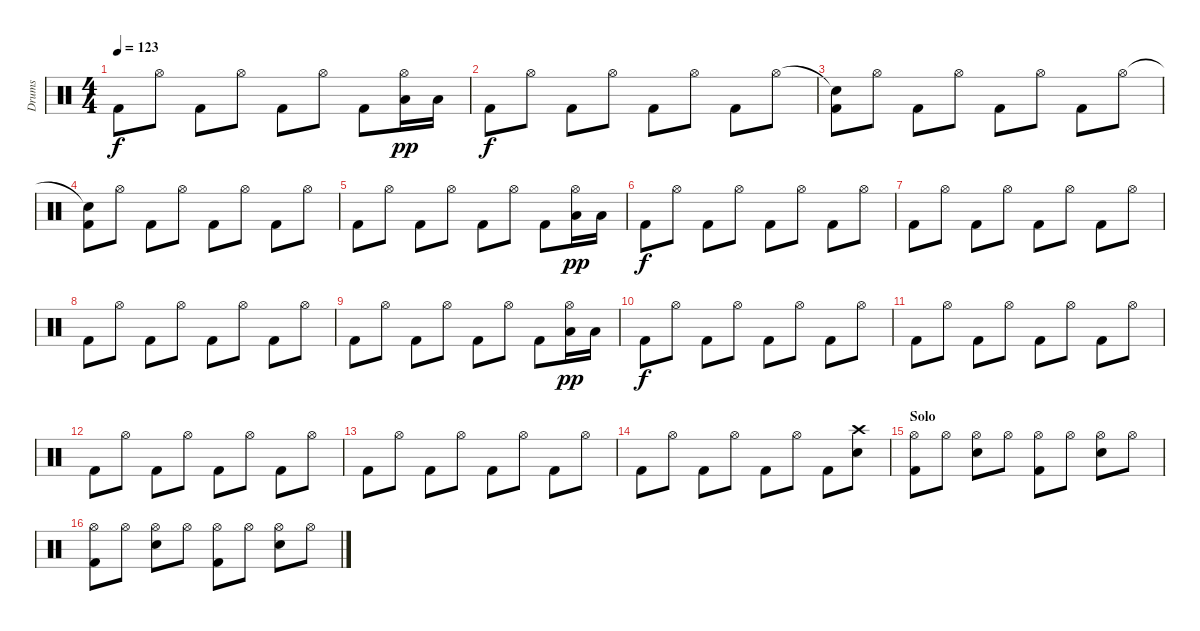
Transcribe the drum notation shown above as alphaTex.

\track ("Drums" "Drums") {instrument percussion}
\staff {score}
\articulation defaults
\ts (4 4)
\tempo 123
\clef neutral
\ks c "Kick (hit) 2".8{dy f} "Hi-Hat (open)".8 "Kick (hit) 2".8 "Hi-Hat (open)".8 "Kick (hit) 2".8 "Hi-Hat (open)".8 "Kick (hit) 2".8
("Hi-Hat (open)" "Low Tom (hit)").16{dy pp} "Low Tom (hit)".16 |
"Kick (hit) 2".8{dy f} "Hi-Hat (open)".8 "Kick (hit) 2".8 "Hi-Hat (open)".8 "Kick (hit) 2".8 "Hi-Hat (open)".8 "Kick (hit) 2".8 "Hi-Hat (open)".8 |
("Snare (hit)"{t} "Kick (hit) 2").8 "Hi-Hat (open)".8 "Kick (hit) 2".8 "Hi-Hat (open)".8 "Kick (hit) 2".8 "Hi-Hat (open)".8 "Kick (hit) 2".8 "Hi-Hat (open)".8 |
("Snare (hit)"{t} "Kick (hit) 2").8 "Hi-Hat (open)".8 "Kick (hit) 2".8 "Hi-Hat (open)".8 "Kick (hit) 2".8 "Hi-Hat (open)".8 "Kick (hit) 2".8 "Hi-Hat (open)".8 |
"Kick (hit) 2".8 "Hi-Hat (open)".8 "Kick (hit) 2".8 "Hi-Hat (open)".8 "Kick (hit) 2".8 "Hi-Hat (open)".8 "Kick (hit) 2".8 ("Hi-Hat (open)" "Low Tom (hit)").16{dy pp} "Low Tom (hit)".16 |
"Kick (hit) 2".8{dy f} "Hi-Hat (open)".8 "Kick (hit) 2".8 "Hi-Hat (open)".8 "Kick (hit) 2".8 "Hi-Hat (open)".8 "Kick (hit) 2".8 "Hi-Hat (open)".8 |
"Kick (hit) 2".8 "Hi-Hat (open)".8 "Kick (hit) 2".8 "Hi-Hat (open)".8 "Kick (hit) 2".8 "Hi-Hat (open)".8 "Kick (hit) 2".8 "Hi-Hat (open)".8 |
"Kick (hit) 2".8 "Hi-Hat (open)".8 "Kick (hit) 2".8 "Hi-Hat (open)".8 "Kick (hit) 2".8 "Hi-Hat (open)".8 "Kick (hit) 2".8 "Hi-Hat (open)".8 |
"Kick (hit) 2".8 "Hi-Hat (open)".8 "Kick (hit) 2".8 "Hi-Hat (open)".8 "Kick (hit) 2".8 "Hi-Hat (open)".8 "Kick (hit) 2".8 ("Hi-Hat (open)" "Low Tom (hit)").16{dy pp} "Low Tom (hit)".16 |
"Kick (hit) 2".8{dy f} "Hi-Hat (open)".8 "Kick (hit) 2".8 "Hi-Hat (open)".8 "Kick (hit) 2".8 "Hi-Hat (open)".8 "Kick (hit) 2".8 "Hi-Hat (open)".8 |
"Kick (hit) 2".8 "Hi-Hat (open)".8 "Kick (hit) 2".8 "Hi-Hat (open)".8 "Kick (hit) 2".8 "Hi-Hat (open)".8 "Kick (hit) 2".8 "Hi-Hat (open)".8 |
"Kick (hit) 2".8 "Hi-Hat (open)".8 "Kick (hit) 2".8 "Hi-Hat (open)".8 "Kick (hit) 2".8 "Hi-Hat (open)".8 "Kick (hit) 2".8 "Hi-Hat (open)".8 |
"Kick (hit) 2".8 "Hi-Hat (open)".8 "Kick (hit) 2".8 "Hi-Hat (open)".8 "Kick (hit) 2".8 "Hi-Hat (open)".8 "Kick (hit) 2".8 "Hi-Hat (open)".8 |
"Kick (hit) 2".8 "Hi-Hat (open)".8 "Kick (hit) 2".8 "Hi-Hat (open)".8 "Kick (hit) 2".8 "Hi-Hat (open)".8 "Kick (hit) 2".8 ("Crash high (hit)" "Electric Snare (hit)").8 |
\section ("" "Solo")
("Hi-Hat (open)" "Kick (hit) 2").8 "Hi-Hat (open)".8 ("Hi-Hat (open)" "Electric Snare (hit)").8 "Hi-Hat (open)".8 ("Hi-Hat (open)" "Kick (hit) 2").8 "Hi-Hat (open)".8 ("Hi-Hat (open)" "Electric Snare (hit)").8 "Hi-Hat (open)".8 |
("Hi-Hat (open)" "Kick (hit) 2").8 "Hi-Hat (open)".8 ("Hi-Hat (open)" "Electric Snare (hit)").8 "Hi-Hat (open)".8 ("Hi-Hat (open)" "Kick (hit) 2").8 "Hi-Hat (open)".8 ("Hi-Hat (open)" "Electric Snare (hit)").8 "Hi-Hat (open)".8
